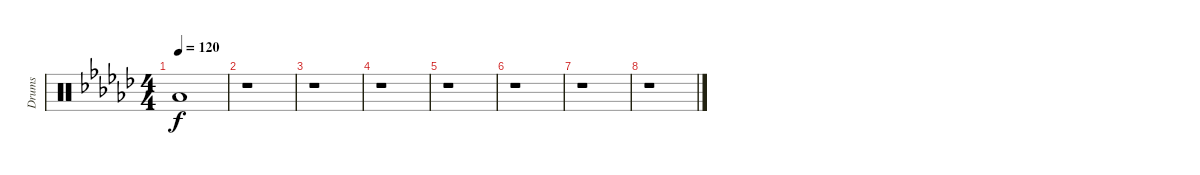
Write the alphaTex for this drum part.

\track ("Drums" "Drums") {instrument percussion}
\staff {score}
\articulation defaults
\ts (4 4)
\tempo 120
\clef neutral
\ks gb "Low Floor Tom (hit)".1{dy f}
|
r.1 |
r.1 |
r.1 |
r.1 |
r.1 |
r.1 |
r.1
